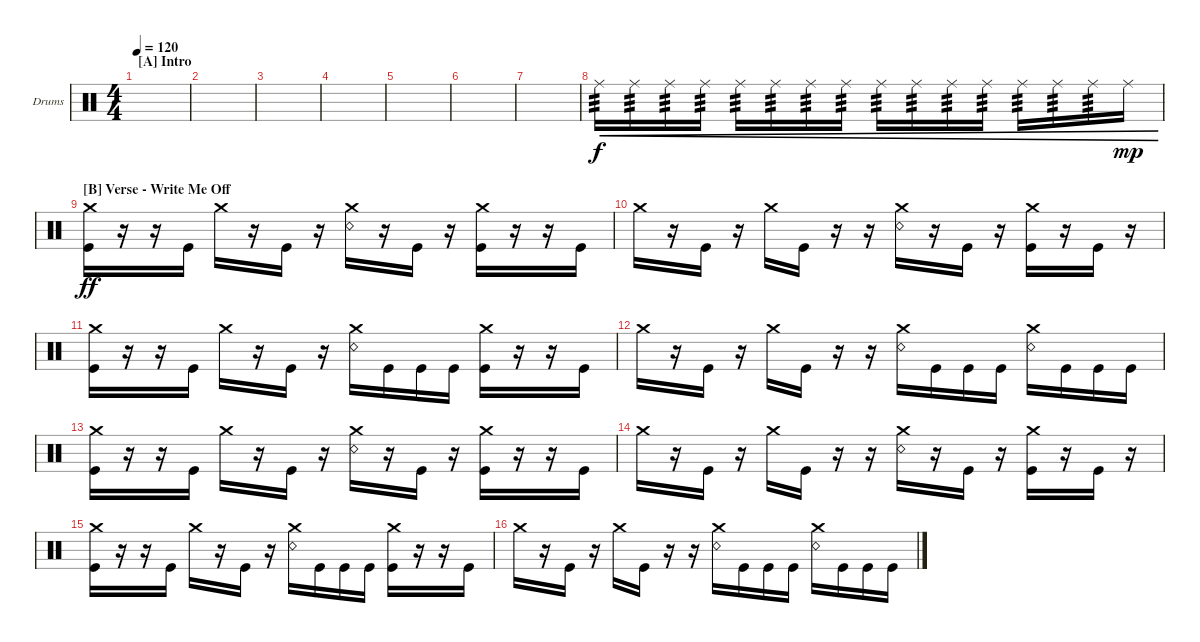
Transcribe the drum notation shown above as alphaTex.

\defaultSystemsLayout 4
\bracketExtendMode groupsimilarinstruments
\firstSystemTrackNameOrientation horizontal
\otherSystemsTrackNameOrientation horizontal
\track ("Drumkit" "Drums") {instrument percussion}
\staff {score}
\articulation defaults
\ts (4 4)
\section ("A" "Intro")
\tempo 120
\clef neutral
\ks c
|
|
|
|
|
|
|
"Ride (middle)".16{tp 3 cre} "Ride (middle)".16{tp 3 cre} "Ride (middle)".16{tp 3 cre} "Ride (middle)".16{tp 3 cre} "Ride (middle)".16{tp 3 cre} "Ride (middle)".16{tp 3 cre} "Ride (middle)".16{tp 3 cre} "Ride (middle)".16{tp 3 cre} "Ride (middle)".16{tp 3 cre} "Ride (middle)".16{tp 3 cre} "Ride (middle)".16{tp 3 cre} "Ride (middle)".16{tp 3 cre} "Ride (middle)".16{tp 3 cre} "Ride (middle)".16{tp 3 cre} "Ride (middle)".16{tp 3 cre} "Ride (middle)".16{cre dy mp} |
\section ("B" "Verse - Write Me Off")
("Crash medium (hit)" "Kick (hit)").16{dy ff} r.16 r.16 "Kick (hit)".16 "Crash medium (hit)".16 r.16 "Kick (hit)".16 r.16 ("Crash medium (hit)" "Snare (rim shot)").16 r.16 "Kick (hit)".16 r.16 ("Crash medium (hit)" "Kick (hit)").16 r.16 r.16 "Kick (hit)".16 |
"Crash medium (hit)".16 r.16 "Kick (hit)".16 r.16 "Crash medium (hit)".16 "Kick (hit)".16 r.16 r.16 ("Crash medium (hit)" "Snare (rim shot)").16 r.16 "Kick (hit)".16 r.16 ("Crash medium (hit)" "Kick (hit)").16 r.16 "Kick (hit)".16 r.16 |
("Crash medium (hit)" "Kick (hit)").16 r.16 r.16 "Kick (hit)".16 "Crash medium (hit)".16 r.16 "Kick (hit)".16 r.16 ("Crash medium (hit)" "Snare (rim shot)").16 "Kick (hit)".16 "Kick (hit)".16 "Kick (hit)".16 ("Crash medium (hit)" "Kick (hit)").16 r.16 r.16 "Kick (hit)".16 |
"Crash medium (hit)".16 r.16 "Kick (hit)".16 r.16 "Crash medium (hit)".16 "Kick (hit)".16 r.16 r.16 ("Crash medium (hit)" "Snare (rim shot)").16 "Kick (hit)".16 "Kick (hit)".16 "Kick (hit)".16 ("Crash medium (hit)" "Snare (rim shot)").16 "Kick (hit)".16 "Kick (hit)".16 "Kick (hit)".16 |
("Crash medium (hit)" "Kick (hit)").16 r.16 r.16 "Kick (hit)".16 "Crash medium (hit)".16 r.16 "Kick (hit)".16 r.16 ("Crash medium (hit)" "Snare (rim shot)").16 r.16 "Kick (hit)".16 r.16 ("Crash medium (hit)" "Kick (hit)").16 r.16 r.16 "Kick (hit)".16 |
"Crash medium (hit)".16 r.16 "Kick (hit)".16 r.16 "Crash medium (hit)".16 "Kick (hit)".16 r.16 r.16 ("Crash medium (hit)" "Snare (rim shot)").16 r.16 "Kick (hit)".16 r.16 ("Crash medium (hit)" "Kick (hit)").16 r.16 "Kick (hit)".16 r.16 |
("Crash medium (hit)" "Kick (hit)").16 r.16 r.16 "Kick (hit)".16 "Crash medium (hit)".16 r.16 "Kick (hit)".16 r.16 ("Crash medium (hit)" "Snare (rim shot)").16 "Kick (hit)".16 "Kick (hit)".16 "Kick (hit)".16 ("Crash medium (hit)" "Kick (hit)").16 r.16 r.16 "Kick (hit)".16 |
"Crash medium (hit)".16 r.16 "Kick (hit)".16 r.16 "Crash medium (hit)".16 "Kick (hit)".16 r.16 r.16 ("Crash medium (hit)" "Snare (rim shot)").16 "Kick (hit)".16 "Kick (hit)".16 "Kick (hit)".16 ("Crash medium (hit)" "Snare (rim shot)").16 "Kick (hit)".16 "Kick (hit)".16 "Kick (hit)".16
